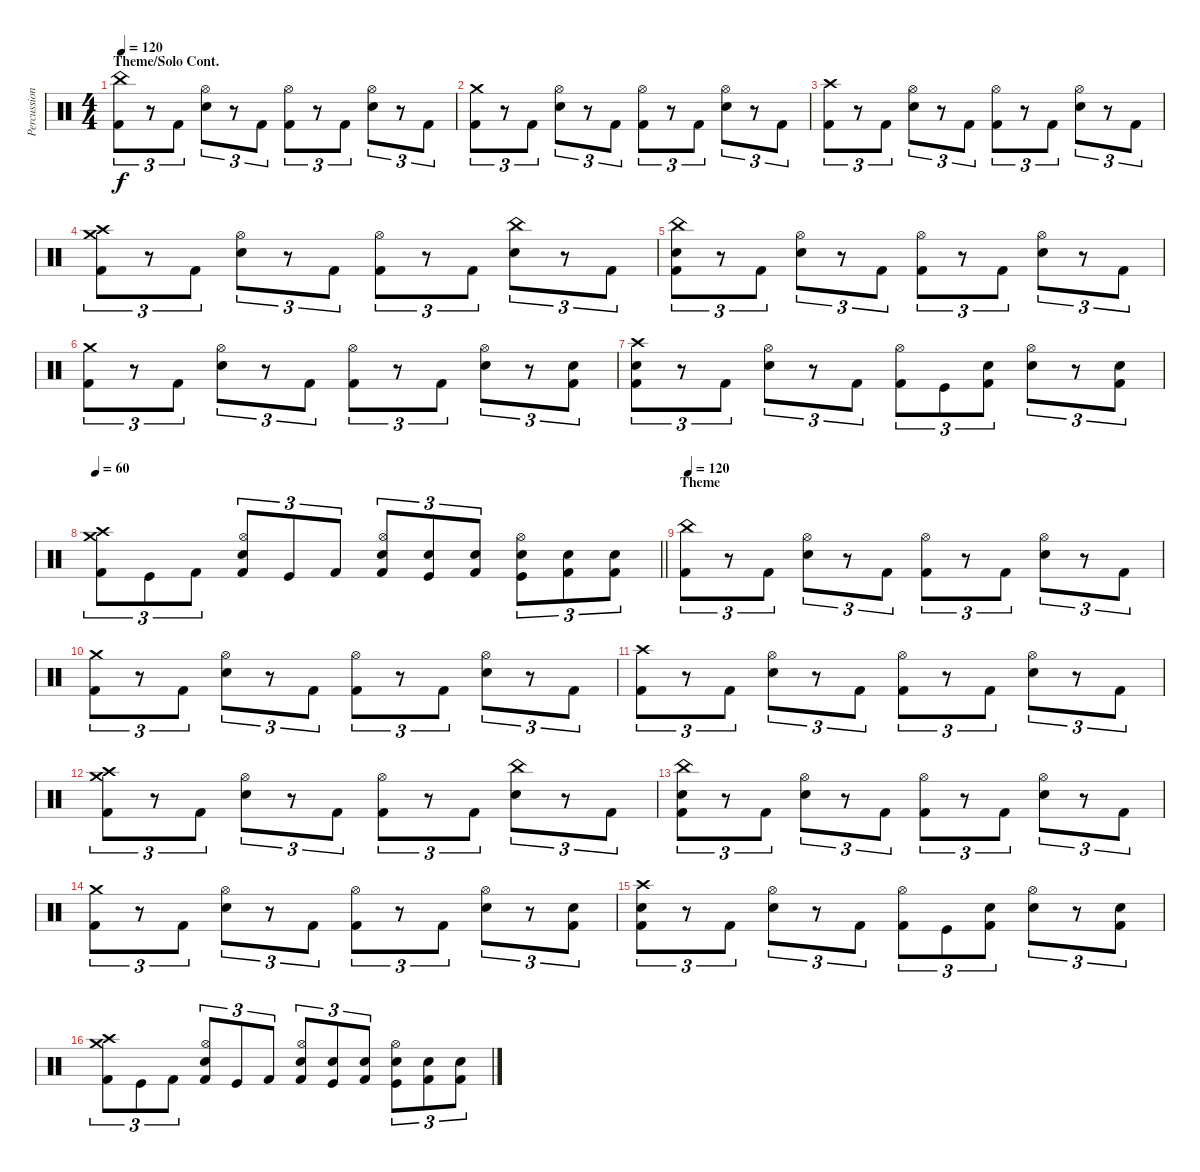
\track ("Percussion" "Percussion") {instrument percussion}
\staff {score}
\articulation defaults
\ts (4 4)
\section ("" "Theme/Solo Cont.")
\tempo 120
\clef neutral
\ks c
("China (hit)" "Kick (hit) 2").8{tu (3 2) dy f} r.8{tu (3 2)} "Kick (hit) 2".8{tu (3 2)} ("Hi-Hat (open)" "Snare (hit) 2").8{tu (3 2)} r.8{tu (3 2)} "Kick (hit) 2".8{tu (3 2)} ("Hi-Hat (open)" "Kick (hit) 2").8{tu (3 2)} r.8{tu (3 2)} "Kick (hit) 2".8{tu (3 2)} ("Hi-Hat (open)" "Snare (hit) 2").8{tu (3 2)} r.8{tu (3 2)} "Kick (hit) 2".8{tu (3 2)} |
("Crash medium (hit)" "Kick (hit) 2").8{tu (3 2)} r.8{tu (3 2)} "Kick (hit) 2".8{tu (3 2)} ("Hi-Hat (open)" "Snare (hit) 2").8{tu (3 2)} r.8{tu (3 2)} "Kick (hit) 2".8{tu (3 2)} ("Hi-Hat (open)" "Kick (hit) 2").8{tu (3 2)} r.8{tu (3 2)} "Kick (hit) 2".8{tu (3 2)} ("Hi-Hat (open)" "Snare (hit) 2").8{tu (3 2)} r.8{tu (3 2)} "Kick (hit) 2".8{tu (3 2)} |
("Crash high (hit)" "Kick (hit) 2").8{tu (3 2)} r.8{tu (3 2)} "Kick (hit) 2".8{tu (3 2)} ("Hi-Hat (open)" "Snare (hit) 2").8{tu (3 2)} r.8{tu (3 2)} "Kick (hit) 2".8{tu (3 2)} ("Hi-Hat (open)" "Kick (hit) 2").8{tu (3 2)} r.8{tu (3 2)} "Kick (hit) 2".8{tu (3 2)} ("Hi-Hat (open)" "Snare (hit) 2").8{tu (3 2)} r.8{tu (3 2)} "Kick (hit) 2".8{tu (3 2)} |
("Crash medium (hit)" "Crash high (hit)" "Kick (hit) 2").8{tu (3 2)} r.8{tu (3 2)} "Kick (hit) 2".8{tu (3 2)} ("Hi-Hat (open)" "Snare (hit) 2").8{tu (3 2)} r.8{tu (3 2)} "Kick (hit) 2".8{tu (3 2)} ("Hi-Hat (open)" "Kick (hit) 2").8{tu (3 2)} r.8{tu (3 2)} "Kick (hit) 2".8{tu (3 2)} ("China (hit)" "Snare (hit) 2").8{tu (3 2)} r.8{tu (3 2)} "Kick (hit) 2".8{tu (3 2)} |
("China (hit)" "Snare (hit) 2" "Kick (hit) 2").8{tu (3 2)} r.8{tu (3 2)} "Kick (hit) 2".8{tu (3 2)} ("Hi-Hat (open)" "Snare (hit) 2").8{tu (3 2)} r.8{tu (3 2)} "Kick (hit) 2".8{tu (3 2)} ("Hi-Hat (open)" "Kick (hit) 2").8{tu (3 2)} r.8{tu (3 2)} "Kick (hit) 2".8{tu (3 2)} ("Hi-Hat (open)" "Snare (hit) 2").8{tu (3 2)} r.8{tu (3 2)} "Kick (hit) 2".8{tu (3 2)} |
("Crash medium (hit)" "Kick (hit) 2").8{tu (3 2)} r.8{tu (3 2)} "Kick (hit) 2".8{tu (3 2)} ("Hi-Hat (open)" "Snare (hit) 2").8{tu (3 2)} r.8{tu (3 2)} "Kick (hit) 2".8{tu (3 2)} ("Hi-Hat (open)" "Kick (hit) 2").8{tu (3 2)} r.8{tu (3 2)} "Kick (hit) 2".8{tu (3 2)} ("Hi-Hat (open)" "Snare (hit) 2").8{tu (3 2)} r.8{tu (3 2)} ("Snare (hit) 2" "Kick (hit) 2").8{tu (3 2)} |
("Crash high (hit)" "Snare (hit) 2" "Kick (hit) 2").8{tu (3 2)} r.8{tu (3 2)} "Kick (hit) 2".8{tu (3 2)} ("Hi-Hat (open)" "Snare (hit) 2").8{tu (3 2)} r.8{tu (3 2)} "Kick (hit) 2".8{tu (3 2)} ("Hi-Hat (open)" "Kick (hit) 2").8{tu (3 2)} "Kick (hit)".8{tu (3 2)} ("Snare (hit) 2" "Kick (hit) 2").8{tu (3 2)} ("Hi-Hat (open)" "Snare (hit) 2").8{tu (3 2)} r.8{tu (3 2)} ("Snare (hit) 2" "Kick (hit) 2").8{tu (3 2)} |
\tempo 60
\barLineRight lightlight
("Crash medium (hit)" "Crash high (hit)" "Kick (hit) 2").8{tu (3 2)} "Kick (hit)".8{tu (3 2)} "Kick (hit) 2".8{tu (3 2)} ("Hi-Hat (open)" "Snare (hit) 2" "Kick (hit) 2").8{tu (3 2)} "Kick (hit)".8{tu (3 2)} "Kick (hit) 2".8{tu (3 2)} ("Hi-Hat (open)" "Snare (hit) 2" "Kick (hit) 2").8{tu (3 2)} ("Snare (hit) 2" "Kick (hit)").8{tu (3 2)} ("Snare (hit) 2" "Kick (hit) 2").8{tu (3 2)} ("Hi-Hat (open)" "Snare (hit) 2" "Kick (hit)").8{tu (3 2)} ("Snare (hit) 2" "Kick (hit) 2").8{tu (3 2)} ("Snare (hit) 2" "Kick (hit) 2").8{tu (3 2)} |
\section ("" "Theme")
\tempo 120
("China (hit)" "Kick (hit) 2").8{tu (3 2)} r.8{tu (3 2)} "Kick (hit) 2".8{tu (3 2)} ("Hi-Hat (open)" "Snare (hit) 2").8{tu (3 2)} r.8{tu (3 2)} "Kick (hit) 2".8{tu (3 2)} ("Hi-Hat (open)" "Kick (hit) 2").8{tu (3 2)} r.8{tu (3 2)} "Kick (hit) 2".8{tu (3 2)} ("Hi-Hat (open)" "Snare (hit) 2").8{tu (3 2)} r.8{tu (3 2)} "Kick (hit) 2".8{tu (3 2)} |
("Crash medium (hit)" "Kick (hit) 2").8{tu (3 2)} r.8{tu (3 2)} "Kick (hit) 2".8{tu (3 2)} ("Hi-Hat (open)" "Snare (hit) 2").8{tu (3 2)} r.8{tu (3 2)} "Kick (hit) 2".8{tu (3 2)} ("Hi-Hat (open)" "Kick (hit) 2").8{tu (3 2)} r.8{tu (3 2)} "Kick (hit) 2".8{tu (3 2)} ("Hi-Hat (open)" "Snare (hit) 2").8{tu (3 2)} r.8{tu (3 2)} "Kick (hit) 2".8{tu (3 2)} |
("Crash high (hit)" "Kick (hit) 2").8{tu (3 2)} r.8{tu (3 2)} "Kick (hit) 2".8{tu (3 2)} ("Hi-Hat (open)" "Snare (hit) 2").8{tu (3 2)} r.8{tu (3 2)} "Kick (hit) 2".8{tu (3 2)} ("Hi-Hat (open)" "Kick (hit) 2").8{tu (3 2)} r.8{tu (3 2)} "Kick (hit) 2".8{tu (3 2)} ("Hi-Hat (open)" "Snare (hit) 2").8{tu (3 2)} r.8{tu (3 2)} "Kick (hit) 2".8{tu (3 2)} |
("Crash medium (hit)" "Crash high (hit)" "Kick (hit) 2").8{tu (3 2)} r.8{tu (3 2)} "Kick (hit) 2".8{tu (3 2)} ("Hi-Hat (open)" "Snare (hit) 2").8{tu (3 2)} r.8{tu (3 2)} "Kick (hit) 2".8{tu (3 2)} ("Hi-Hat (open)" "Kick (hit) 2").8{tu (3 2)} r.8{tu (3 2)} "Kick (hit) 2".8{tu (3 2)} ("China (hit)" "Snare (hit) 2").8{tu (3 2)} r.8{tu (3 2)} "Kick (hit) 2".8{tu (3 2)} |
("China (hit)" "Snare (hit) 2" "Kick (hit) 2").8{tu (3 2)} r.8{tu (3 2)} "Kick (hit) 2".8{tu (3 2)} ("Hi-Hat (open)" "Snare (hit) 2").8{tu (3 2)} r.8{tu (3 2)} "Kick (hit) 2".8{tu (3 2)} ("Hi-Hat (open)" "Kick (hit) 2").8{tu (3 2)} r.8{tu (3 2)} "Kick (hit) 2".8{tu (3 2)} ("Hi-Hat (open)" "Snare (hit) 2").8{tu (3 2)} r.8{tu (3 2)} "Kick (hit) 2".8{tu (3 2)} |
("Crash medium (hit)" "Kick (hit) 2").8{tu (3 2)} r.8{tu (3 2)} "Kick (hit) 2".8{tu (3 2)} ("Hi-Hat (open)" "Snare (hit) 2").8{tu (3 2)} r.8{tu (3 2)} "Kick (hit) 2".8{tu (3 2)} ("Hi-Hat (open)" "Kick (hit) 2").8{tu (3 2)} r.8{tu (3 2)} "Kick (hit) 2".8{tu (3 2)} ("Hi-Hat (open)" "Snare (hit) 2").8{tu (3 2)} r.8{tu (3 2)} ("Snare (hit) 2" "Kick (hit) 2").8{tu (3 2)} |
("Crash high (hit)" "Snare (hit) 2" "Kick (hit) 2").8{tu (3 2)} r.8{tu (3 2)} "Kick (hit) 2".8{tu (3 2)} ("Hi-Hat (open)" "Snare (hit) 2").8{tu (3 2)} r.8{tu (3 2)} "Kick (hit) 2".8{tu (3 2)} ("Hi-Hat (open)" "Kick (hit) 2").8{tu (3 2)} "Kick (hit)".8{tu (3 2)} ("Snare (hit) 2" "Kick (hit) 2").8{tu (3 2)} ("Hi-Hat (open)" "Snare (hit) 2").8{tu (3 2)} r.8{tu (3 2)} ("Snare (hit) 2" "Kick (hit) 2").8{tu (3 2)} |
("Crash medium (hit)" "Crash high (hit)" "Kick (hit) 2").8{tu (3 2)} "Kick (hit)".8{tu (3 2)} "Kick (hit) 2".8{tu (3 2)} ("Hi-Hat (open)" "Snare (hit) 2" "Kick (hit) 2").8{tu (3 2)} "Kick (hit)".8{tu (3 2)} "Kick (hit) 2".8{tu (3 2)} ("Hi-Hat (open)" "Snare (hit) 2" "Kick (hit) 2").8{tu (3 2)} ("Snare (hit) 2" "Kick (hit)").8{tu (3 2)} ("Snare (hit) 2" "Kick (hit) 2").8{tu (3 2)} ("Hi-Hat (open)" "Snare (hit) 2" "Kick (hit)").8{tu (3 2)} ("Snare (hit) 2" "Kick (hit) 2").8{tu (3 2)} ("Snare (hit) 2" "Kick (hit) 2").8{tu (3 2)}
